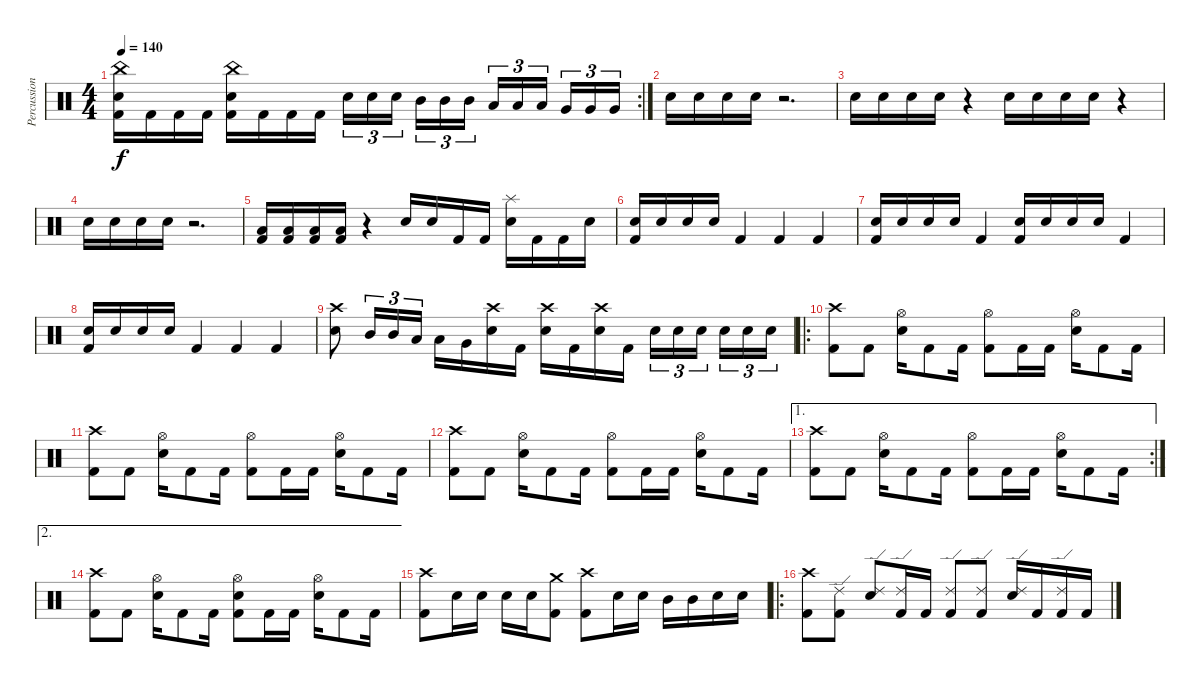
\track ("Percussions" "Percussion") {instrument percussion}
\staff {score}
\articulation defaults
\rc 2
\ts (4 4)
\tempo 140
\clef neutral
\ks c
("China (hit)" "Snare (hit) 2" "Kick (hit) 2").16{dy f} "Kick (hit) 2".16 "Kick (hit) 2".16 "Kick (hit) 2".16 ("China (hit)" "Snare (hit) 2" "Kick (hit) 2").16 "Kick (hit) 2".16 "Kick (hit) 2".16 "Kick (hit) 2".16 "Snare (hit) 2".16{tu (3 2)} "Snare (hit) 2".16{tu (3 2)} "Snare (hit) 2".16{tu (3 2)} "Mid Tom (hit)".16{tu (3 2)} "Mid Tom (hit)".16{tu (3 2)} "Mid Tom (hit)".16{tu (3 2)} "Low Tom (hit)".16{tu (3 2)} "Low Tom (hit)".16{tu (3 2)} "Low Tom (hit)".16{tu (3 2)} "Very Low Tom (hit)".16{tu (3 2)} "Very Low Tom (hit)".16{tu (3 2)} "Very Low Tom (hit)".16{tu (3 2)} |
"Snare (hit) 2".16 "Snare (hit) 2".16 "Snare (hit) 2".16 "Snare (hit) 2".16 r.2{d} |
"Snare (hit) 2".16 "Snare (hit) 2".16 "Snare (hit) 2".16 "Snare (hit) 2".16 r.4 "Snare (hit) 2".16 "Snare (hit) 2".16 "Snare (hit) 2".16 "Snare (hit) 2".16 r.4 |
"Snare (hit) 2".16 "Snare (hit) 2".16 "Snare (hit) 2".16 "Snare (hit) 2".16 r.2{d} |
("Low Floor Tom (hit)" "Kick (hit) 2").16 ("Low Floor Tom (hit)" "Kick (hit) 2").16 ("Low Floor Tom (hit)" "Kick (hit) 2").16 ("Low Floor Tom (hit)" "Kick (hit) 2").16 r.4 "Snare (hit) 2".16 "Snare (hit) 2".16 "Kick (hit) 2".16 "Kick (hit) 2".16 ("Splash (hit)" "Snare (hit) 2").16 "Kick (hit) 2".16 "Kick (hit) 2".16 "Snare (hit) 2".16 |
("Snare (hit) 2" "Kick (hit) 2").16 "Snare (hit) 2".16 "Snare (hit) 2".16 "Snare (hit) 2".16 "Kick (hit) 2".4 "Kick (hit) 2".4 "Kick (hit) 2".4 |
("Snare (hit) 2" "Kick (hit) 2").16 "Snare (hit) 2".16 "Snare (hit) 2".16 "Snare (hit) 2".16 "Kick (hit) 2".4 ("Snare (hit) 2" "Kick (hit) 2").16 "Snare (hit) 2".16 "Snare (hit) 2".16 "Snare (hit) 2".16 "Kick (hit) 2".4 |
("Snare (hit) 2" "Kick (hit) 2").16 "Snare (hit) 2".16 "Snare (hit) 2".16 "Snare (hit) 2".16 "Kick (hit) 2".4 "Kick (hit) 2".4 "Kick (hit) 2".4 |
("Crash high (hit)" "Snare (hit) 2").8 "Mid Tom (hit)".16{tu (3 2)} "Mid Tom (hit)".16{tu (3 2)} "Low Tom (hit)".16{tu (3 2)} "Low Tom (hit)".16 "Very Low Tom (hit)".16 ("Crash high (hit)" "Snare (hit) 2").16 "Kick (hit) 2".16 ("Crash high (hit)" "Snare (hit) 2").16 "Kick (hit) 2".16 ("Crash high (hit)" "Snare (hit) 2").16 "Kick (hit) 2".16 "Snare (hit) 2".16{tu (3 2)} "Snare (hit) 2".16{tu (3 2)} "Snare (hit) 2".16{tu (3 2)} "Snare (hit) 2".16{tu (3 2)} "Snare (hit) 2".16{tu (3 2)} "Snare (hit) 2".16{tu (3 2)} |
\ro
("Crash high (hit)" "Kick (hit) 2").8 "Kick (hit) 2".8 ("Hi-Hat (open)" "Snare (hit) 2").16 "Kick (hit) 2".8 "Kick (hit) 2".16 ("Hi-Hat (open)" "Kick (hit) 2").8 "Kick (hit) 2".16 "Kick (hit) 2".16 ("Hi-Hat (open)" "Snare (hit) 2").16 "Kick (hit) 2".8 "Kick (hit) 2".16 |
("Crash high (hit)" "Kick (hit) 2").8 "Kick (hit) 2".8 ("Hi-Hat (open)" "Snare (hit) 2").16 "Kick (hit) 2".8 "Kick (hit) 2".16 ("Hi-Hat (open)" "Kick (hit) 2").8 "Kick (hit) 2".16 "Kick (hit) 2".16 ("Hi-Hat (open)" "Snare (hit) 2").16 "Kick (hit) 2".8 "Kick (hit) 2".16 |
("Crash high (hit)" "Kick (hit) 2").8 "Kick (hit) 2".8 ("Hi-Hat (open)" "Snare (hit) 2").16 "Kick (hit) 2".8 "Kick (hit) 2".16 ("Hi-Hat (open)" "Kick (hit) 2").8 "Kick (hit) 2".16 "Kick (hit) 2".16 ("Hi-Hat (open)" "Snare (hit) 2").16 "Kick (hit) 2".8 "Kick (hit) 2".16 |
\ae 1
\rc 2
("Crash high (hit)" "Kick (hit) 2").8 "Kick (hit) 2".8 ("Hi-Hat (open)" "Snare (hit) 2").16 "Kick (hit) 2".8 "Kick (hit) 2".16 ("Hi-Hat (open)" "Kick (hit) 2").8 "Kick (hit) 2".16 "Kick (hit) 2".16 ("Hi-Hat (open)" "Snare (hit) 2").16 "Kick (hit) 2".8 "Kick (hit) 2".16 |
\ae 2
("Crash high (hit)" "Kick (hit) 2").8 "Kick (hit) 2".8 ("Hi-Hat (open)" "Snare (hit) 2").16 "Kick (hit) 2".8 "Kick (hit) 2".16 ("Hi-Hat (open)" "Snare (hit) 2" "Kick (hit) 2").8 "Kick (hit) 2".16 "Kick (hit) 2".16 ("Hi-Hat (open)" "Snare (hit) 2").16 "Kick (hit) 2".8 "Kick (hit) 2".16 |
("Crash high (hit)" "Kick (hit) 2").8 "Snare (hit) 2".16 "Snare (hit) 2".16 "Snare (hit) 2".16 "Snare (hit) 2".16 ("Crash medium (hit)" "Kick (hit) 2").8 ("Crash high (hit)" "Kick (hit) 2").8 "Snare (hit) 2".16 "Snare (hit) 2".16 "Mid Tom (hit)".16 "Mid Tom (hit)".16 "Snare (hit) 2".16 "Snare (hit) 2".16 |
\ro
("Crash high (hit)" "Kick (hit) 2").8 ("Ride (edge) 2" "Kick (hit) 2").8 ("Ride (edge) 2" "Snare (hit) 2").8 ("Ride (edge) 2" "Kick (hit) 2").16 "Kick (hit) 2".16 ("Ride (edge) 2" "Kick (hit) 2").8 ("Ride (edge) 2" "Kick (hit) 2").8 ("Ride (edge) 2" "Snare (hit) 2").16 "Kick (hit) 2".16 ("Ride (edge) 2" "Kick (hit) 2").16 "Kick (hit) 2".16
